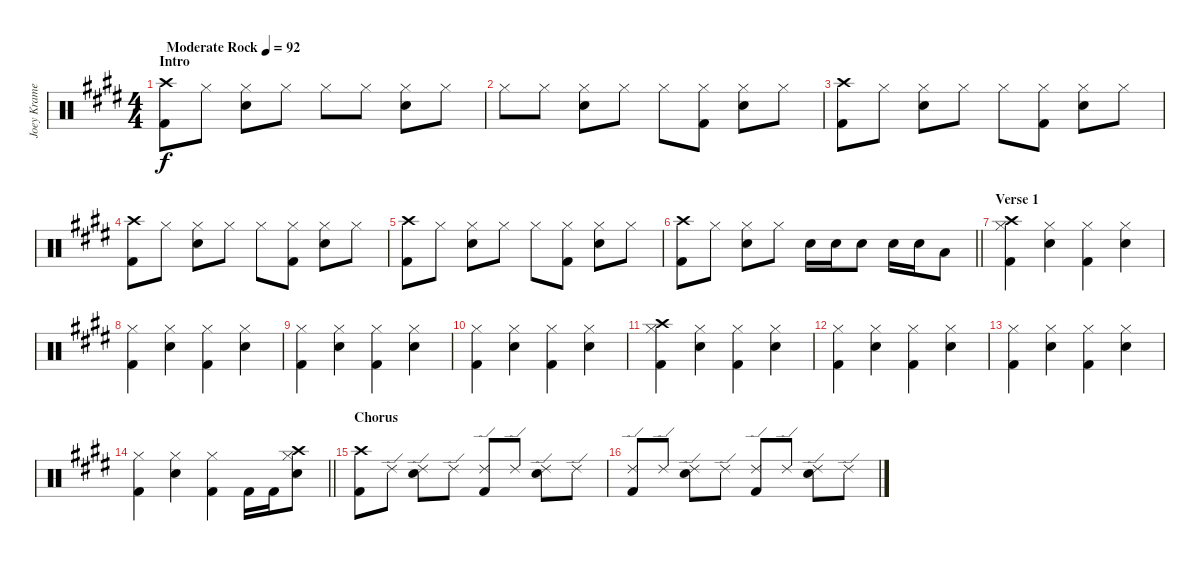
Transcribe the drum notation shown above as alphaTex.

\track ("Joey Kramer" "Joey Krame") {instrument percussion}
\staff {score}
\articulation defaults
\ts (4 4)
\section ("" "Intro")
\tempo (92 "Moderate Rock")
\clef neutral
\ks e
("Crash high (hit)" "Kick (hit) 2").8{dy f} "Hi-Hat (closed)".8 ("Hi-Hat (closed)" "Electric Snare (hit)").8 "Hi-Hat (closed)".8 "Hi-Hat (closed)".8 "Hi-Hat (closed)".8 ("Hi-Hat (closed)" "Electric Snare (hit)").8 "Hi-Hat (closed)".8 |
"Hi-Hat (closed)".8 "Hi-Hat (closed)".8 ("Hi-Hat (closed)" "Electric Snare (hit)").8 "Hi-Hat (closed)".8 "Hi-Hat (closed)".8 ("Hi-Hat (closed)" "Kick (hit) 2").8 ("Hi-Hat (closed)" "Electric Snare (hit)").8 "Hi-Hat (closed)".8 |
("Crash high (hit)" "Kick (hit) 2").8 "Hi-Hat (closed)".8 ("Hi-Hat (closed)" "Electric Snare (hit)").8 "Hi-Hat (closed)".8 "Hi-Hat (closed)".8 ("Hi-Hat (closed)" "Kick (hit) 2").8 ("Hi-Hat (closed)" "Electric Snare (hit)").8 "Hi-Hat (closed)".8 |
("Crash high (hit)" "Kick (hit) 2").8 "Hi-Hat (closed)".8 ("Hi-Hat (closed)" "Electric Snare (hit)").8 "Hi-Hat (closed)".8 "Hi-Hat (closed)".8 ("Hi-Hat (closed)" "Kick (hit) 2").8 ("Hi-Hat (closed)" "Electric Snare (hit)").8 "Hi-Hat (closed)".8 |
("Crash high (hit)" "Kick (hit) 2").8 "Hi-Hat (closed)".8 ("Hi-Hat (closed)" "Electric Snare (hit)").8 "Hi-Hat (closed)".8 "Hi-Hat (closed)".8 ("Hi-Hat (closed)" "Kick (hit) 2").8 ("Hi-Hat (closed)" "Electric Snare (hit)").8 "Hi-Hat (closed)".8 |
\barLineRight lightlight
("Crash high (hit)" "Kick (hit) 2").8 "Hi-Hat (closed)".8 ("Hi-Hat (closed)" "Electric Snare (hit)").8 "Hi-Hat (closed)".8 "Electric Snare (hit)".16 "Electric Snare (hit)".16 "Electric Snare (hit)".8 "Electric Snare (hit)".16 "Electric Snare (hit)".16 "Low Tom (hit)".8 |
\section ("" "Verse 1")
("Crash high (hit)" "Hi-Hat (closed)" "Kick (hit) 2").4 ("Hi-Hat (closed)" "Electric Snare (hit)").4 ("Hi-Hat (closed)" "Kick (hit) 2").4 ("Hi-Hat (closed)" "Electric Snare (hit)").4 |
("Hi-Hat (closed)" "Kick (hit) 2").4 ("Hi-Hat (closed)" "Electric Snare (hit)").4 ("Hi-Hat (closed)" "Kick (hit) 2").4 ("Hi-Hat (closed)" "Electric Snare (hit)").4 |
("Hi-Hat (closed)" "Kick (hit) 2").4 ("Hi-Hat (closed)" "Electric Snare (hit)").4 ("Hi-Hat (closed)" "Kick (hit) 2").4 ("Hi-Hat (closed)" "Electric Snare (hit)").4 |
("Hi-Hat (closed)" "Kick (hit) 2").4 ("Hi-Hat (closed)" "Electric Snare (hit)").4 ("Hi-Hat (closed)" "Kick (hit) 2").4 ("Hi-Hat (closed)" "Electric Snare (hit)").4 |
("Crash high (hit)" "Hi-Hat (closed)" "Kick (hit) 2").4 ("Hi-Hat (closed)" "Electric Snare (hit)").4 ("Hi-Hat (closed)" "Kick (hit) 2").4 ("Hi-Hat (closed)" "Electric Snare (hit)").4 |
("Hi-Hat (closed)" "Kick (hit) 2").4 ("Hi-Hat (closed)" "Electric Snare (hit)").4 ("Hi-Hat (closed)" "Kick (hit) 2").4 ("Hi-Hat (closed)" "Electric Snare (hit)").4 |
("Hi-Hat (closed)" "Kick (hit) 2").4 ("Hi-Hat (closed)" "Electric Snare (hit)").4 ("Hi-Hat (closed)" "Kick (hit) 2").4 ("Hi-Hat (closed)" "Electric Snare (hit)").4 |
\barLineRight lightlight
("Hi-Hat (closed)" "Kick (hit) 2").4 ("Hi-Hat (closed)" "Electric Snare (hit)").4 ("Hi-Hat (closed)" "Kick (hit) 2").4 "Kick (hit) 2".16 "Kick (hit) 2".16 ("Crash high (hit)" "Hi-Hat (closed)" "Electric Snare (hit)").8 |
\section ("" "Chorus")
("Crash high (hit)" "Kick (hit) 2").8 "Ride (edge) 2".8 ("Ride (edge) 2" "Electric Snare (hit)").8 "Ride (edge) 2".8 ("Ride (edge) 2" "Kick (hit) 2").8 "Ride (edge) 2".8 ("Ride (edge) 2" "Electric Snare (hit)").8 "Ride (edge) 2".8 |
("Ride (edge) 2" "Kick (hit) 2").8 "Ride (edge) 2".8 ("Ride (edge) 2" "Electric Snare (hit)").8 "Ride (edge) 2".8 ("Ride (edge) 2" "Kick (hit) 2").8 "Ride (edge) 2".8 ("Ride (edge) 2" "Electric Snare (hit)").8 "Ride (edge) 2".8
